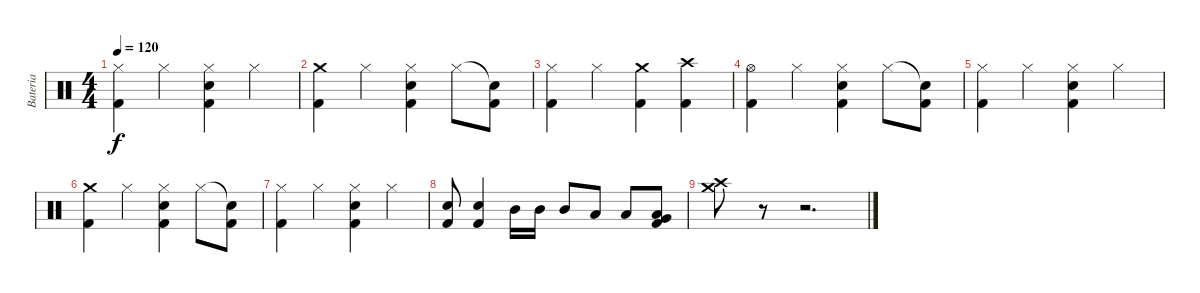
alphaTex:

\track ("Bateria" "Bateria") {instrument percussion}
\staff {score}
\articulation defaults
\ts (4 4)
\tempo 120
\clef neutral
\ks c
("Hi-Hat (closed)" "Kick (hit) 2").4{dy f} "Hi-Hat (closed)".4 ("Hi-Hat (closed)" "Electric Snare (hit)" "Kick (hit) 2").4 "Hi-Hat (closed)".4 |
("Crash medium (hit)" "Kick (hit) 2").4 "Hi-Hat (closed)".4 ("Hi-Hat (closed)" "Electric Snare (hit)" "Kick (hit) 2").4 "Hi-Hat (closed)".8 ("Snare (hit)"{t} "Kick (hit) 2").8 |
("Hi-Hat (closed)" "Kick (hit) 2").4 "Hi-Hat (closed)".4 ("Crash medium (hit)" "Kick (hit) 2").4 ("Crash high (hit)" "Kick (hit) 2").4 |
("Hi-Hat (open)" "Kick (hit) 2").4 "Hi-Hat (closed)".4 ("Hi-Hat (closed)" "Electric Snare (hit)" "Kick (hit) 2").4 "Hi-Hat (closed)".8 ("Snare (hit)"{t} "Kick (hit) 2").8 |
("Hi-Hat (closed)" "Kick (hit) 2").4 "Hi-Hat (closed)".4 ("Hi-Hat (closed)" "Electric Snare (hit)" "Kick (hit) 2").4 "Hi-Hat (closed)".4 |
("Crash medium (hit)" "Kick (hit) 2").4 "Hi-Hat (closed)".4 ("Hi-Hat (closed)" "Electric Snare (hit)" "Kick (hit) 2").4 "Hi-Hat (closed)".8 ("Snare (hit)"{t} "Kick (hit) 2").8 |
("Hi-Hat (closed)" "Kick (hit) 2").4 "Hi-Hat (closed)".4 ("Hi-Hat (closed)" "Electric Snare (hit)" "Kick (hit) 2").4 "Hi-Hat (closed)".4 |
("Electric Snare (hit)" "Kick (hit) 2").8 ("Electric Snare (hit)" "Kick (hit) 2").4 "Mid Tom (hit)".16 "Mid Tom (hit)".16 "Mid Tom (hit)".8 "Low Tom (hit)".8 "Low Tom (hit)".8 ("Low Tom (hit)" "Very Low Tom (hit)" "Kick (hit) 2").8 |
("Crash medium (hit)" "Crash high (hit)").8 r.8 r.2{d}
